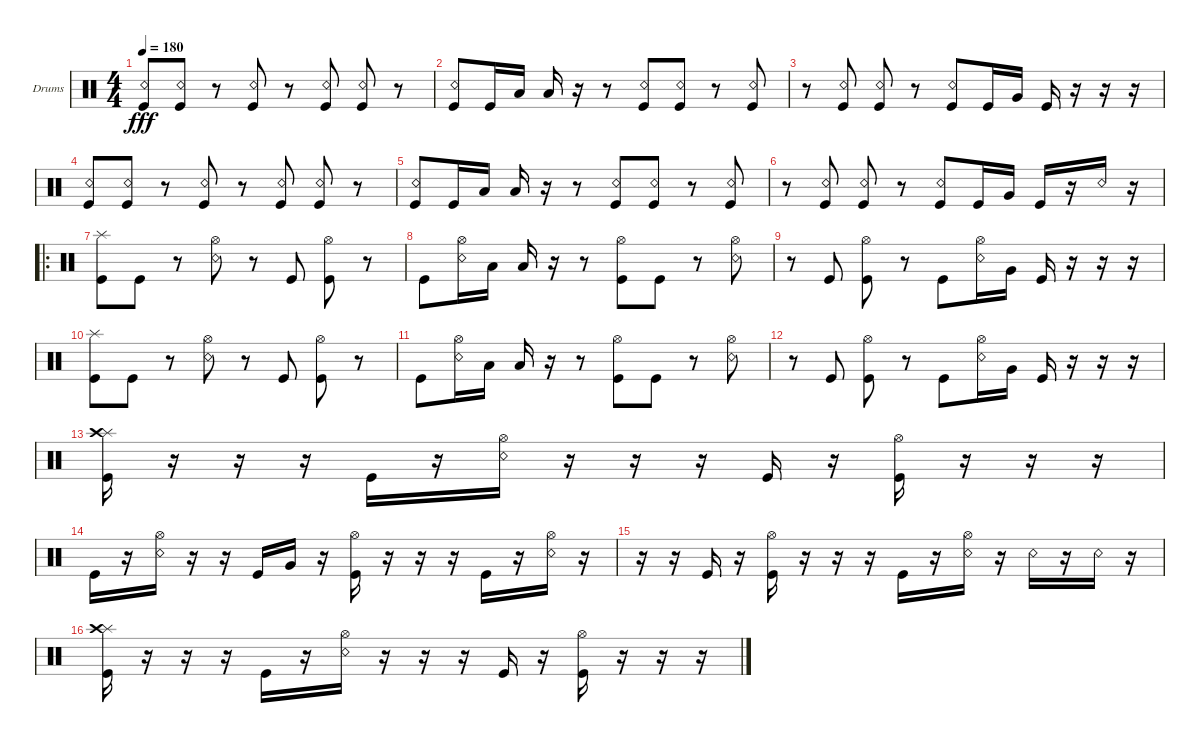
\defaultSystemsLayout 4
\bracketExtendMode groupsimilarinstruments
\firstSystemTrackNameOrientation horizontal
\otherSystemsTrackNameOrientation horizontal
\track ("Drumkit" "Drums") {instrument percussion}
\staff {score}
\articulation defaults
\ts (4 4)
\tempo 180
\clef neutral
\scale
0.333333
\ks c
("Snare (rim shot)" "Kick (hit)").8{dy fff} ("Snare (rim shot)" "Kick (hit)").8 r.8 ("Snare (rim shot)" "Kick (hit)").8 r.8 ("Snare (rim shot)" "Kick (hit)").8 ("Snare (rim shot)" "Kick (hit)").8 r.8 |
\scale
0.333333 ("Snare (rim shot)" "Kick (hit)").8 "Kick (hit)".16 "Low Tom (hit)".16 "Low Tom (hit)".16 r.16 r.8 ("Kick (hit)" "Snare (rim shot)").8 ("Kick (hit)" "Snare (rim shot)").8 r.8 ("Kick (hit)" "Snare (rim shot)").8 |
\scale
0.333333 r.8 ("Kick (hit)" "Snare (rim shot)").8 ("Kick (hit)" "Snare (rim shot)").8 r.8 ("Kick (hit)" "Snare (rim shot)").8 "Kick (hit)".16 "Very Low Tom (hit)".16 "Kick (hit)".16 r.16 r.16 r.16 |
\scale
0.333333 ("Snare (rim shot)" "Kick (hit)").8 ("Snare (rim shot)" "Kick (hit)").8 r.8 ("Snare (rim shot)" "Kick (hit)").8 r.8 ("Snare (rim shot)" "Kick (hit)").8 ("Snare (rim shot)" "Kick (hit)").8 r.8 |
\scale
0.333333 ("Snare (rim shot)" "Kick (hit)").8 "Kick (hit)".16 "Low Tom (hit)".16 "Low Tom (hit)".16 r.16 r.8 ("Kick (hit)" "Snare (rim shot)").8 ("Kick (hit)" "Snare (rim shot)").8 r.8 ("Kick (hit)" "Snare (rim shot)").8 |
r.8 ("Kick (hit)" "Snare (rim shot)").8 ("Kick (hit)" "Snare (rim shot)").8 r.8 ("Kick (hit)" "Snare (rim shot)").8 "Kick (hit)".16 "Very Low Tom (hit)".16 "Kick (hit)".16 r.16 "Snare (rim shot)".16 r.16 |
\ro
("Kick (hit)" "Splash (hit)").8 "Kick (hit)".8 r.8 ("Snare (rim shot)" "Hi-Hat (open)").8 r.8 "Kick (hit)".8 ("Kick (hit)" "Hi-Hat (open)").8 r.8 |
"Kick (hit)".8 ("Hi-Hat (open)" "Snare (rim shot)").16 "Low Tom (hit)".16 "Low Tom (hit)".16 r.16 r.8 ("Kick (hit)" "Hi-Hat (open)").8 "Kick (hit)".8 r.8 ("Hi-Hat (open)" "Snare (rim shot)").8 |
r.8 "Kick (hit)".8 ("Kick (hit)" "Hi-Hat (open)").8 r.8 "Kick (hit)".8 ("Hi-Hat (open)" "Snare (rim shot)").16 "Very Low Tom (hit)".16 "Kick (hit)".16 r.16 r.16 r.16 |
("Kick (hit)" "Splash (hit)").8 "Kick (hit)".8 r.8 ("Snare (rim shot)" "Hi-Hat (open)").8 r.8 "Kick (hit)".8 ("Kick (hit)" "Hi-Hat (open)").8 r.8 |
"Kick (hit)".8 ("Hi-Hat (open)" "Snare (rim shot)").16 "Low Tom (hit)".16 "Low Tom (hit)".16 r.16 r.8 ("Kick (hit)" "Hi-Hat (open)").8 "Kick (hit)".8 r.8 ("Hi-Hat (open)" "Snare (rim shot)").8 |
r.8 "Kick (hit)".8 ("Kick (hit)" "Hi-Hat (open)").8 r.8 "Kick (hit)".8 ("Hi-Hat (open)" "Snare (rim shot)").16 "Very Low Tom (hit)".16 "Kick (hit)".16 r.16 r.16 r.16 |
("Splash (hit)" "Crash high (hit)" "Kick (hit)").16 r.16 r.16 r.16 "Kick (hit)".16 r.16 ("Hi-Hat (open)" "Snare (rim shot)").16 r.16 r.16 r.16 "Kick (hit)".16 r.16 ("Hi-Hat (open)" "Kick (hit)").16 r.16 r.16 r.16 |
"Kick (hit)".16 r.16 ("Hi-Hat (open)" "Snare (rim shot)").16 r.16 r.16 "Kick (hit)".16 "Very Low Tom (hit)".16 r.16 ("Hi-Hat (open)" "Kick (hit)").16 r.16 r.16 r.16 "Kick (hit)".16 r.16 ("Hi-Hat (open)" "Snare (rim shot)").16 r.16 |
r.16 r.16 "Kick (hit)".16 r.16 ("Hi-Hat (open)" "Kick (hit)").16 r.16 r.16 r.16 "Kick (hit)".16 r.16 ("Hi-Hat (open)" "Snare (rim shot)").16 r.16 "Snare (rim shot)".16 r.16 "Snare (rim shot)".16 r.16 |
("Splash (hit)" "Crash high (hit)" "Kick (hit)").16 r.16 r.16 r.16 "Kick (hit)".16 r.16 ("Hi-Hat (open)" "Snare (rim shot)").16 r.16 r.16 r.16 "Kick (hit)".16 r.16 ("Hi-Hat (open)" "Kick (hit)").16 r.16 r.16 r.16
